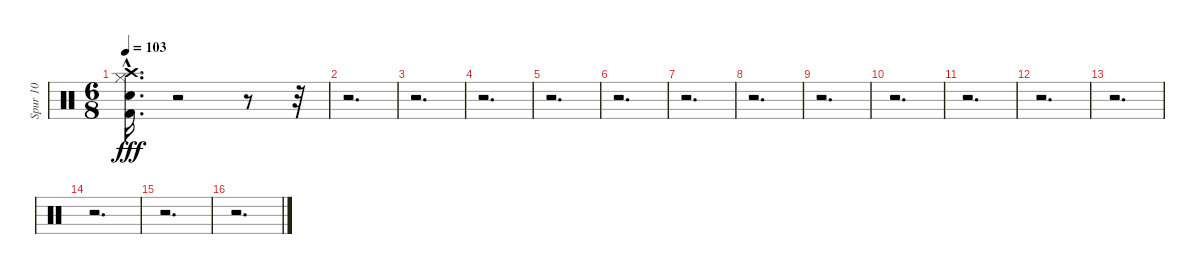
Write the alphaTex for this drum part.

\track ("Spur 10" "Spur 10") {instrument percussion}
\staff {score}
\articulation defaults
\ts (6 8)
\tempo 103
\clef neutral
\ks c
("Kick (hit) 2" "Snare (hit) 2" "Hi-Hat (closed)" "Crash high (hit)"{hac}).16{d dy fff} r.2 r.8 r.32 |
r.2{d} |
r.2{d} |
r.2{d} |
r.2{d} |
r.2{d} |
r.2{d} |
r.2{d} |
r.2{d} |
r.2{d} |
r.2{d} |
r.2{d} |
r.2{d} |
r.2{d} |
r.2{d} |
r.2{d}
